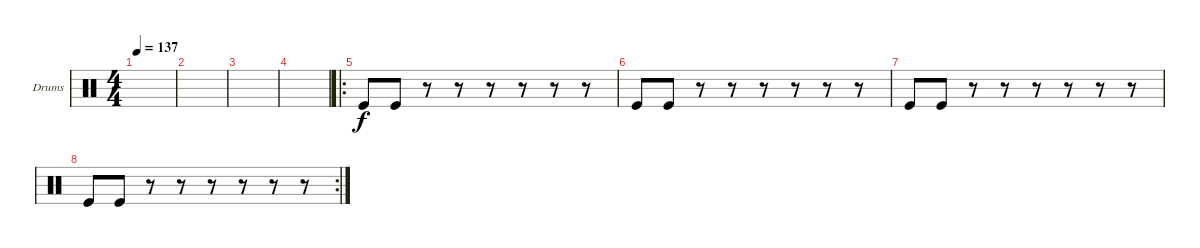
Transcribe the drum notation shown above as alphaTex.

\defaultSystemsLayout 4
\bracketExtendMode groupsimilarinstruments
\firstSystemTrackNameOrientation horizontal
\otherSystemsTrackNameOrientation horizontal
\track ("Drumkit" "Drums") {instrument percussion}
\staff {score}
\articulation defaults
\ts (4 4)
\tempo 137
\clef neutral
\ks c
|
|
|
|
\ro "Kick (hit)".8 "Kick (hit)".8
r.8 r.8 r.8 r.8 r.8 r.8 |
"Kick (hit)".8 "Kick (hit)".8 r.8 r.8 r.8 r.8 r.8 r.8 |
"Kick (hit)".8 "Kick (hit)".8 r.8 r.8 r.8 r.8 r.8 r.8 |
\rc 2 "Kick (hit)".8 "Kick (hit)".8
r.8 r.8 r.8 r.8 r.8 r.8
